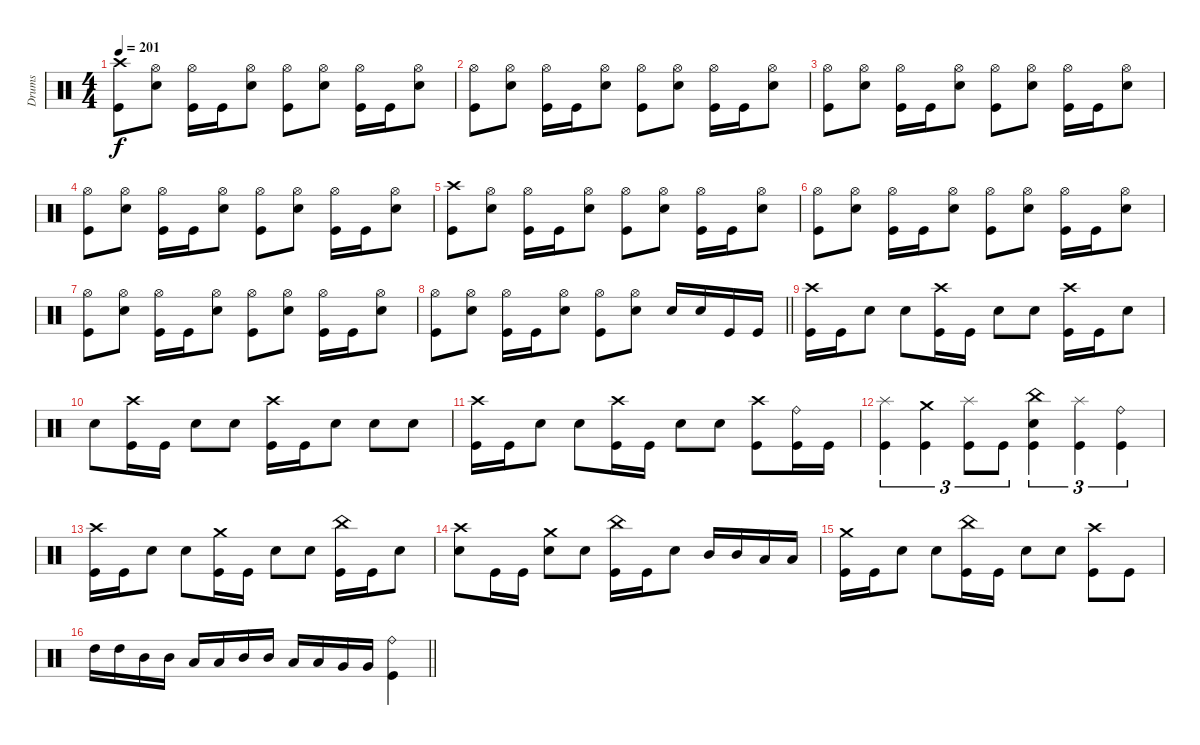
\track ("Drums" "Drums") {instrument percussion}
\staff
\articulation defaults
\ts (4 4)
\tempo 201
\clef neutral
\ks c
("Crash high (hit)" "Kick (hit)").8{dy f} ("Hi-Hat (open)" "Electric Snare (hit)").8 ("Hi-Hat (open)" "Kick (hit)").16 "Kick (hit)".16 ("Hi-Hat (open)" "Electric Snare (hit)").8 ("Hi-Hat (open)" "Kick (hit)").8 ("Hi-Hat (open)" "Electric Snare (hit)").8 ("Hi-Hat (open)" "Kick (hit)").16 "Kick (hit)".16 ("Hi-Hat (open)" "Electric Snare (hit)").8 |
("Hi-Hat (open)" "Kick (hit)").8 ("Hi-Hat (open)" "Electric Snare (hit)").8 ("Hi-Hat (open)" "Kick (hit)").16 "Kick (hit)".16 ("Hi-Hat (open)" "Electric Snare (hit)").8 ("Hi-Hat (open)" "Kick (hit)").8 ("Hi-Hat (open)" "Electric Snare (hit)").8 ("Hi-Hat (open)" "Kick (hit)").16 "Kick (hit)".16 ("Hi-Hat (open)" "Electric Snare (hit)").8 |
("Hi-Hat (open)" "Kick (hit)").8 ("Hi-Hat (open)" "Electric Snare (hit)").8 ("Hi-Hat (open)" "Kick (hit)").16 "Kick (hit)".16 ("Hi-Hat (open)" "Electric Snare (hit)").8 ("Hi-Hat (open)" "Kick (hit)").8 ("Hi-Hat (open)" "Electric Snare (hit)").8 ("Hi-Hat (open)" "Kick (hit)").16 "Kick (hit)".16 ("Hi-Hat (open)" "Electric Snare (hit)").8 |
("Hi-Hat (open)" "Kick (hit)").8 ("Hi-Hat (open)" "Electric Snare (hit)").8 ("Hi-Hat (open)" "Kick (hit)").16 "Kick (hit)".16 ("Hi-Hat (open)" "Electric Snare (hit)").8 ("Hi-Hat (open)" "Kick (hit)").8 ("Hi-Hat (open)" "Electric Snare (hit)").8 ("Hi-Hat (open)" "Kick (hit)").16 "Kick (hit)".16 ("Hi-Hat (open)" "Electric Snare (hit)").8 |
("Crash high (hit)" "Kick (hit)").8 ("Hi-Hat (open)" "Electric Snare (hit)").8 ("Hi-Hat (open)" "Kick (hit)").16 "Kick (hit)".16 ("Hi-Hat (open)" "Electric Snare (hit)").8 ("Hi-Hat (open)" "Kick (hit)").8 ("Hi-Hat (open)" "Electric Snare (hit)").8 ("Hi-Hat (open)" "Kick (hit)").16 "Kick (hit)".16 ("Hi-Hat (open)" "Electric Snare (hit)").8 |
("Hi-Hat (open)" "Kick (hit)").8 ("Hi-Hat (open)" "Electric Snare (hit)").8 ("Hi-Hat (open)" "Kick (hit)").16 "Kick (hit)".16 ("Hi-Hat (open)" "Electric Snare (hit)").8 ("Hi-Hat (open)" "Kick (hit)").8 ("Hi-Hat (open)" "Electric Snare (hit)").8 ("Hi-Hat (open)" "Kick (hit)").16 "Kick (hit)".16 ("Hi-Hat (open)" "Electric Snare (hit)").8 |
("Hi-Hat (open)" "Kick (hit)").8 ("Hi-Hat (open)" "Electric Snare (hit)").8 ("Hi-Hat (open)" "Kick (hit)").16 "Kick (hit)".16 ("Hi-Hat (open)" "Electric Snare (hit)").8 ("Hi-Hat (open)" "Kick (hit)").8 ("Hi-Hat (open)" "Electric Snare (hit)").8 ("Hi-Hat (open)" "Kick (hit)").16 "Kick (hit)".16 ("Hi-Hat (open)" "Electric Snare (hit)").8 |
\barLineRight lightlight
("Hi-Hat (open)" "Kick (hit)").8 ("Hi-Hat (open)" "Electric Snare (hit)").8 ("Hi-Hat (open)" "Kick (hit)").16 "Kick (hit)".16 ("Hi-Hat (open)" "Electric Snare (hit)").8 ("Hi-Hat (open)" "Kick (hit)").8 ("Hi-Hat (open)" "Electric Snare (hit)").8 "Electric Snare (hit)".16 "Electric Snare (hit)".16 "Kick (hit)".16 "Kick (hit)".16 |
\section ("" "")
("Crash high (hit)" "Kick (hit)").16 "Kick (hit)".16 "Electric Snare (hit)".8 "Electric Snare (hit)".8 ("Crash high (hit)" "Kick (hit)").16 "Kick (hit)".16 "Electric Snare (hit)".8 "Electric Snare (hit)".8 ("Crash high (hit)" "Kick (hit)").16 "Kick (hit)".16 "Electric Snare (hit)".8 |
"Electric Snare (hit)".8 ("Crash high (hit)" "Kick (hit)").16 "Kick (hit)".16 "Electric Snare (hit)".8 "Electric Snare (hit)".8 ("Crash high (hit)" "Kick (hit)").16 "Kick (hit)".16 "Electric Snare (hit)".8 "Electric Snare (hit)".8 "Electric Snare (hit)".8 |
("Crash high (hit)" "Kick (hit)").16 "Kick (hit)".16 "Electric Snare (hit)".8 "Electric Snare (hit)".8 ("Crash high (hit)" "Kick (hit)").16 "Kick (hit)".16 "Electric Snare (hit)".8 "Electric Snare (hit)".8 ("Crash high (hit)" "Kick (hit)").8 ("Ride (bell)" "Kick (hit)").16 "Kick (hit)".16 |
("Splash (hit)" "Kick (hit)").4{tu (3 2)} ("Crash medium (hit)" "Kick (hit)").4{tu (3 2)} ("Splash (hit)" "Kick (hit)").8{tu (3 2)} "Kick (hit)".8{tu (3 2)} ("China (hit)" "Electric Snare (hit)" "Kick (hit)").4{tu (3 2)} ("Splash (hit)" "Kick (hit)").4{tu (3 2)} ("Ride (bell)" "Kick (hit)").4{tu (3 2)} |
("Crash high (hit)" "Kick (hit)").16 "Kick (hit)".16 "Electric Snare (hit)".8 "Electric Snare (hit)".8 ("Crash medium (hit)" "Kick (hit)").16 "Kick (hit)".16 "Electric Snare (hit)".8 "Electric Snare (hit)".8 ("China (hit)" "Kick (hit)").16 "Kick (hit)".16 "Electric Snare (hit)".8 |
("Crash high (hit)" "Electric Snare (hit)").8 "Kick (hit)".16 "Kick (hit)".16 ("Crash medium (hit)" "Electric Snare (hit)").8 "Electric Snare (hit)".8 ("China (hit)" "Kick (hit)").16 "Kick (hit)".16 "Electric Snare (hit)".8 "Mid Tom (hit)".16 "Mid Tom (hit)".16 "Low Tom (hit)".16 "Low Tom (hit)".16 |
("Crash medium (hit)" "Kick (hit)").16 "Kick (hit)".16 "Electric Snare (hit)".8 "Electric Snare (hit)".8 ("China (hit)" "Kick (hit)").16 "Kick (hit)".16 "Electric Snare (hit)".8 "Electric Snare (hit)".8 ("Crash high (hit)" "Kick (hit)").8 "Kick (hit)".8 |
\barLineRight lightlight "High Tom (hit)".16 "High Tom (hit)".16 "Mid Tom (hit)".16 "Mid Tom (hit)".16 "Low Tom (hit)".16 "Low Tom (hit)".16 "Mid Tom (hit)".16 "Mid Tom (hit)".16 "Low Tom (hit)".16 "Low Tom (hit)".16 "Very Low Tom (hit)".16 "Very Low Tom (hit)".16
("Ride (bell)" "Kick (hit)").4
